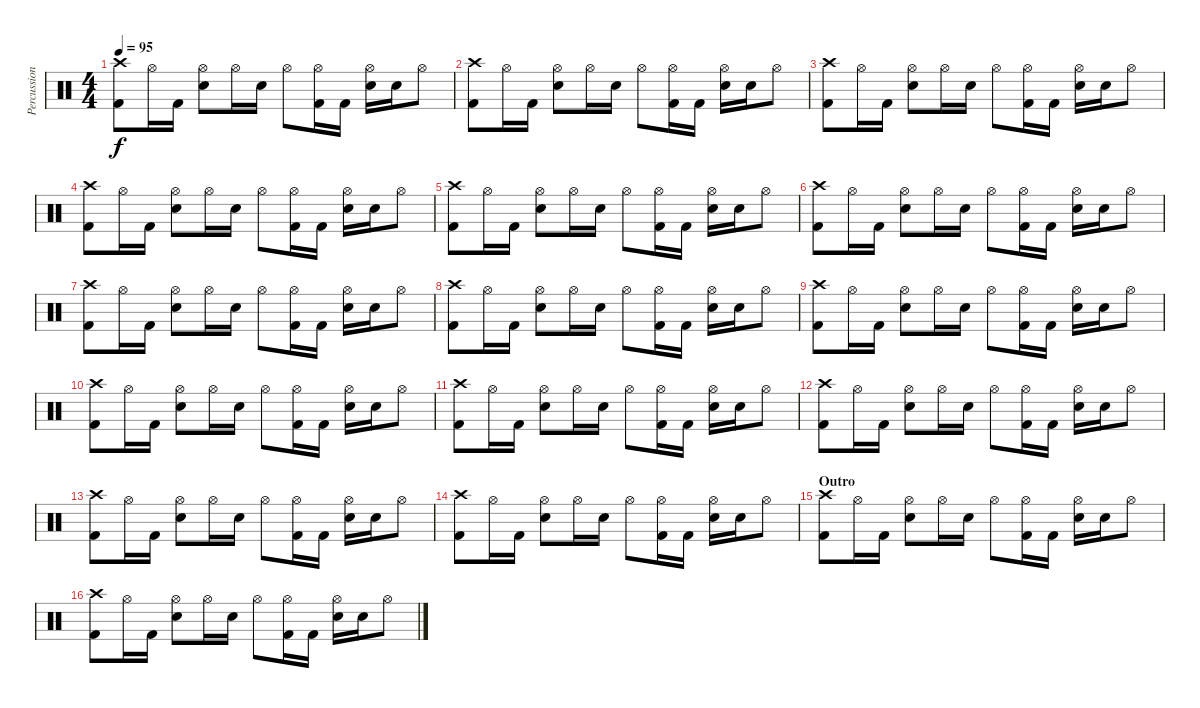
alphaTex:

\track ("Percussion" "Percussion") {instrument percussion}
\staff {score}
\articulation defaults
\ts (4 4)
\tempo 95
\clef neutral
\ks c
("Crash high (hit)" "Kick (hit) 2").8{dy f} "Hi-Hat (open)".16 "Kick (hit) 2".16 ("Hi-Hat (open)" "Snare (hit) 2").8 "Hi-Hat (open)".16 "Snare (hit) 2".16 "Hi-Hat (open)".8 ("Hi-Hat (open)" "Kick (hit) 2").16 "Kick (hit) 2".16 ("Hi-Hat (open)" "Snare (hit) 2").16 "Snare (hit) 2".16 "Hi-Hat (open)".8 |
("Crash high (hit)" "Kick (hit) 2").8 "Hi-Hat (open)".16 "Kick (hit) 2".16 ("Hi-Hat (open)" "Snare (hit) 2").8 "Hi-Hat (open)".16 "Snare (hit) 2".16 "Hi-Hat (open)".8 ("Hi-Hat (open)" "Kick (hit) 2").16 "Kick (hit) 2".16 ("Hi-Hat (open)" "Snare (hit) 2").16 "Snare (hit) 2".16 "Hi-Hat (open)".8 |
("Crash high (hit)" "Kick (hit) 2").8 "Hi-Hat (open)".16 "Kick (hit) 2".16 ("Hi-Hat (open)" "Snare (hit) 2").8 "Hi-Hat (open)".16 "Snare (hit) 2".16 "Hi-Hat (open)".8 ("Hi-Hat (open)" "Kick (hit) 2").16 "Kick (hit) 2".16 ("Hi-Hat (open)" "Snare (hit) 2").16 "Snare (hit) 2".16 "Hi-Hat (open)".8 |
("Crash high (hit)" "Kick (hit) 2").8 "Hi-Hat (open)".16 "Kick (hit) 2".16 ("Hi-Hat (open)" "Snare (hit) 2").8 "Hi-Hat (open)".16 "Snare (hit) 2".16 "Hi-Hat (open)".8 ("Hi-Hat (open)" "Kick (hit) 2").16 "Kick (hit) 2".16 ("Hi-Hat (open)" "Snare (hit) 2").16 "Snare (hit) 2".16 "Hi-Hat (open)".8 |
("Crash high (hit)" "Kick (hit) 2").8 "Hi-Hat (open)".16 "Kick (hit) 2".16 ("Hi-Hat (open)" "Snare (hit) 2").8 "Hi-Hat (open)".16 "Snare (hit) 2".16 "Hi-Hat (open)".8 ("Hi-Hat (open)" "Kick (hit) 2").16 "Kick (hit) 2".16 ("Hi-Hat (open)" "Snare (hit) 2").16 "Snare (hit) 2".16 "Hi-Hat (open)".8 |
("Crash high (hit)" "Kick (hit) 2").8 "Hi-Hat (open)".16 "Kick (hit) 2".16 ("Hi-Hat (open)" "Snare (hit) 2").8 "Hi-Hat (open)".16 "Snare (hit) 2".16 "Hi-Hat (open)".8 ("Hi-Hat (open)" "Kick (hit) 2").16 "Kick (hit) 2".16 ("Hi-Hat (open)" "Snare (hit) 2").16 "Snare (hit) 2".16 "Hi-Hat (open)".8 |
("Crash high (hit)" "Kick (hit) 2").8 "Hi-Hat (open)".16 "Kick (hit) 2".16 ("Hi-Hat (open)" "Snare (hit) 2").8 "Hi-Hat (open)".16 "Snare (hit) 2".16 "Hi-Hat (open)".8 ("Hi-Hat (open)" "Kick (hit) 2").16 "Kick (hit) 2".16 ("Hi-Hat (open)" "Snare (hit) 2").16 "Snare (hit) 2".16 "Hi-Hat (open)".8 |
("Crash high (hit)" "Kick (hit) 2").8 "Hi-Hat (open)".16 "Kick (hit) 2".16 ("Hi-Hat (open)" "Snare (hit) 2").8 "Hi-Hat (open)".16 "Snare (hit) 2".16 "Hi-Hat (open)".8 ("Hi-Hat (open)" "Kick (hit) 2").16 "Kick (hit) 2".16 ("Hi-Hat (open)" "Snare (hit) 2").16 "Snare (hit) 2".16 "Hi-Hat (open)".8 |
("Crash high (hit)" "Kick (hit) 2").8 "Hi-Hat (open)".16 "Kick (hit) 2".16 ("Hi-Hat (open)" "Snare (hit) 2").8 "Hi-Hat (open)".16 "Snare (hit) 2".16 "Hi-Hat (open)".8 ("Hi-Hat (open)" "Kick (hit) 2").16 "Kick (hit) 2".16 ("Hi-Hat (open)" "Snare (hit) 2").16 "Snare (hit) 2".16 "Hi-Hat (open)".8 |
("Crash high (hit)" "Kick (hit) 2").8 "Hi-Hat (open)".16 "Kick (hit) 2".16 ("Hi-Hat (open)" "Snare (hit) 2").8 "Hi-Hat (open)".16 "Snare (hit) 2".16 "Hi-Hat (open)".8 ("Hi-Hat (open)" "Kick (hit) 2").16 "Kick (hit) 2".16 ("Hi-Hat (open)" "Snare (hit) 2").16 "Snare (hit) 2".16 "Hi-Hat (open)".8 |
("Crash high (hit)" "Kick (hit) 2").8 "Hi-Hat (open)".16 "Kick (hit) 2".16 ("Hi-Hat (open)" "Snare (hit) 2").8 "Hi-Hat (open)".16 "Snare (hit) 2".16 "Hi-Hat (open)".8 ("Hi-Hat (open)" "Kick (hit) 2").16 "Kick (hit) 2".16 ("Hi-Hat (open)" "Snare (hit) 2").16 "Snare (hit) 2".16 "Hi-Hat (open)".8 |
("Crash high (hit)" "Kick (hit) 2").8 "Hi-Hat (open)".16 "Kick (hit) 2".16 ("Hi-Hat (open)" "Snare (hit) 2").8 "Hi-Hat (open)".16 "Snare (hit) 2".16 "Hi-Hat (open)".8 ("Hi-Hat (open)" "Kick (hit) 2").16 "Kick (hit) 2".16 ("Hi-Hat (open)" "Snare (hit) 2").16 "Snare (hit) 2".16 "Hi-Hat (open)".8 |
("Crash high (hit)" "Kick (hit) 2").8 "Hi-Hat (open)".16 "Kick (hit) 2".16 ("Hi-Hat (open)" "Snare (hit) 2").8 "Hi-Hat (open)".16 "Snare (hit) 2".16 "Hi-Hat (open)".8 ("Hi-Hat (open)" "Kick (hit) 2").16 "Kick (hit) 2".16 ("Hi-Hat (open)" "Snare (hit) 2").16 "Snare (hit) 2".16 "Hi-Hat (open)".8 |
("Crash high (hit)" "Kick (hit) 2").8 "Hi-Hat (open)".16 "Kick (hit) 2".16 ("Hi-Hat (open)" "Snare (hit) 2").8 "Hi-Hat (open)".16 "Snare (hit) 2".16 "Hi-Hat (open)".8 ("Hi-Hat (open)" "Kick (hit) 2").16 "Kick (hit) 2".16 ("Hi-Hat (open)" "Snare (hit) 2").16 "Snare (hit) 2".16 "Hi-Hat (open)".8 |
\section ("" "Outro")
("Crash high (hit)" "Kick (hit) 2").8 "Hi-Hat (open)".16 "Kick (hit) 2".16 ("Hi-Hat (open)" "Snare (hit) 2").8 "Hi-Hat (open)".16 "Snare (hit) 2".16 "Hi-Hat (open)".8 ("Hi-Hat (open)" "Kick (hit) 2").16 "Kick (hit) 2".16 ("Hi-Hat (open)" "Snare (hit) 2").16 "Snare (hit) 2".16 "Hi-Hat (open)".8 |
("Crash high (hit)" "Kick (hit) 2").8 "Hi-Hat (open)".16 "Kick (hit) 2".16 ("Hi-Hat (open)" "Snare (hit) 2").8 "Hi-Hat (open)".16 "Snare (hit) 2".16 "Hi-Hat (open)".8 ("Hi-Hat (open)" "Kick (hit) 2").16 "Kick (hit) 2".16 ("Hi-Hat (open)" "Snare (hit) 2").16 "Snare (hit) 2".16 "Hi-Hat (open)".8
